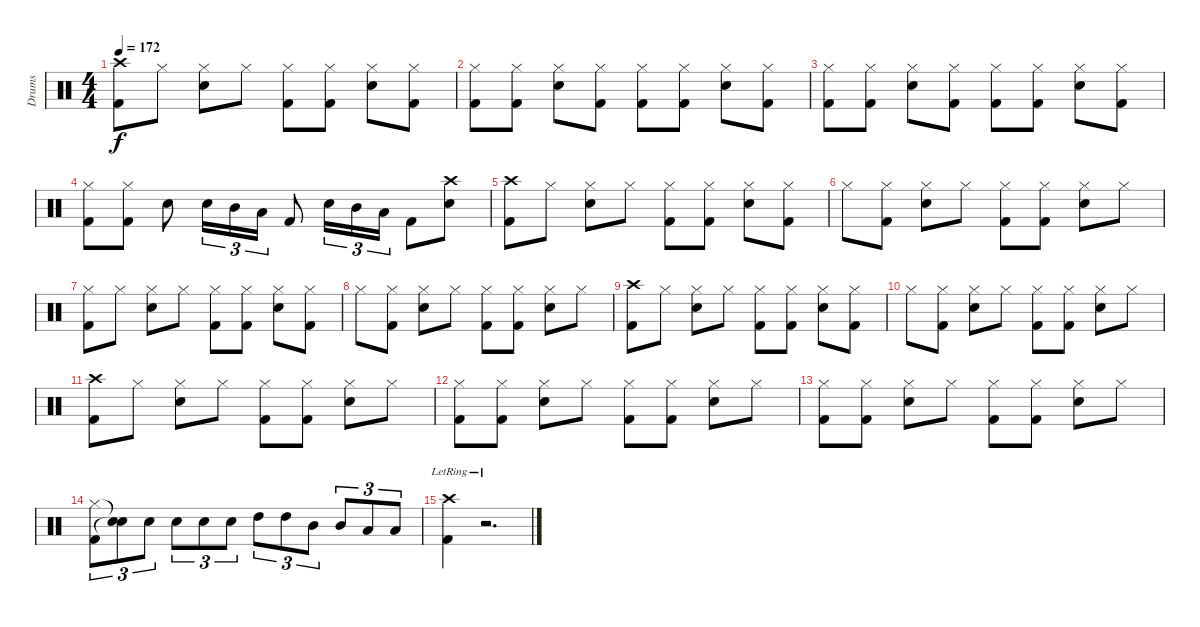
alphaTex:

\track ("Drums" "Drums") {instrument percussion}
\staff {score}
\articulation defaults
\ts (4 4)
\tempo 172
\clef neutral
\ks c
("Crash high (hit)" "Kick (hit) 2").8{dy f} "Hi-Hat (closed)".8 ("Hi-Hat (closed)" "Electric Snare (hit)").8 "Hi-Hat (closed)".8 ("Hi-Hat (closed)" "Kick (hit) 2").8 ("Hi-Hat (closed)" "Kick (hit) 2").8 ("Hi-Hat (closed)" "Electric Snare (hit)").8 ("Hi-Hat (closed)" "Kick (hit) 2").8 |
("Hi-Hat (closed)" "Kick (hit) 2").8 ("Hi-Hat (closed)" "Kick (hit) 2").8 ("Hi-Hat (closed)" "Electric Snare (hit)").8 ("Hi-Hat (closed)" "Kick (hit) 2").8 ("Hi-Hat (closed)" "Kick (hit) 2").8 ("Hi-Hat (closed)" "Kick (hit) 2").8 ("Hi-Hat (closed)" "Electric Snare (hit)").8 ("Hi-Hat (closed)" "Kick (hit) 2").8 |
("Hi-Hat (closed)" "Kick (hit) 2").8 ("Hi-Hat (closed)" "Kick (hit) 2").8 ("Hi-Hat (closed)" "Electric Snare (hit)").8 ("Hi-Hat (closed)" "Kick (hit) 2").8 ("Hi-Hat (closed)" "Kick (hit) 2").8 ("Hi-Hat (closed)" "Kick (hit) 2").8 ("Hi-Hat (closed)" "Electric Snare (hit)").8 ("Hi-Hat (closed)" "Kick (hit) 2").8 |
("Hi-Hat (closed)" "Kick (hit) 2").8 ("Hi-Hat (closed)" "Kick (hit) 2").8 "Electric Snare (hit)".8 "Electric Snare (hit)".16{tu (3 2)} "Mid Tom (hit)".16{tu (3 2)} "Low Tom (hit)".16{tu (3 2)} "Kick (hit) 2".8 "Electric Snare (hit)".16{tu (3 2)} "Mid Tom (hit)".16{tu (3 2)} "Low Tom (hit)".16{tu (3 2)} "Kick (hit) 2".8 ("Crash high (hit)" "Electric Snare (hit)").8 |
("Crash high (hit)" "Kick (hit) 2").8 "Hi-Hat (closed)".8 ("Hi-Hat (closed)" "Electric Snare (hit)").8 "Hi-Hat (closed)".8 ("Hi-Hat (closed)" "Kick (hit) 2").8 ("Hi-Hat (closed)" "Kick (hit) 2").8 ("Hi-Hat (closed)" "Electric Snare (hit)").8 ("Hi-Hat (closed)" "Kick (hit) 2").8 |
"Hi-Hat (closed)".8 ("Hi-Hat (closed)" "Kick (hit) 2").8 ("Hi-Hat (closed)" "Electric Snare (hit)").8 "Hi-Hat (closed)".8 ("Hi-Hat (closed)" "Kick (hit) 2").8 ("Hi-Hat (closed)" "Kick (hit) 2").8 ("Hi-Hat (closed)" "Electric Snare (hit)").8 "Hi-Hat (closed)".8 |
("Hi-Hat (closed)" "Kick (hit) 2").8 "Hi-Hat (closed)".8 ("Hi-Hat (closed)" "Electric Snare (hit)").8 "Hi-Hat (closed)".8 ("Hi-Hat (closed)" "Kick (hit) 2").8 ("Hi-Hat (closed)" "Kick (hit) 2").8 ("Hi-Hat (closed)" "Electric Snare (hit)").8 ("Hi-Hat (closed)" "Kick (hit) 2").8 |
"Hi-Hat (closed)".8 ("Hi-Hat (closed)" "Kick (hit) 2").8 ("Hi-Hat (closed)" "Electric Snare (hit)").8 "Hi-Hat (closed)".8 ("Hi-Hat (closed)" "Kick (hit) 2").8 ("Hi-Hat (closed)" "Kick (hit) 2").8 ("Hi-Hat (closed)" "Electric Snare (hit)").8 "Hi-Hat (closed)".8 |
("Crash high (hit)" "Kick (hit) 2").8 "Hi-Hat (closed)".8 ("Hi-Hat (closed)" "Electric Snare (hit)").8 "Hi-Hat (closed)".8 ("Hi-Hat (closed)" "Kick (hit) 2").8 ("Hi-Hat (closed)" "Kick (hit) 2").8 ("Hi-Hat (closed)" "Electric Snare (hit)").8 ("Hi-Hat (closed)" "Kick (hit) 2").8 |
"Hi-Hat (closed)".8 ("Hi-Hat (closed)" "Kick (hit) 2").8 ("Hi-Hat (closed)" "Electric Snare (hit)").8 "Hi-Hat (closed)".8 ("Hi-Hat (closed)" "Kick (hit) 2").8 ("Hi-Hat (closed)" "Kick (hit) 2").8 ("Hi-Hat (closed)" "Electric Snare (hit)").8 "Hi-Hat (closed)".8 |
("Crash high (hit)" "Kick (hit) 2").8 "Hi-Hat (closed)".8 ("Hi-Hat (closed)" "Electric Snare (hit)").8 "Hi-Hat (closed)".8 ("Hi-Hat (closed)" "Kick (hit) 2").8 ("Hi-Hat (closed)" "Kick (hit) 2").8 ("Hi-Hat (closed)" "Electric Snare (hit)").8 "Hi-Hat (closed)".8 |
("Hi-Hat (closed)" "Kick (hit) 2").8 ("Hi-Hat (closed)" "Kick (hit) 2").8 ("Hi-Hat (closed)" "Electric Snare (hit)").8 "Hi-Hat (closed)".8 ("Hi-Hat (closed)" "Kick (hit) 2").8 ("Hi-Hat (closed)" "Kick (hit) 2").8 ("Hi-Hat (closed)" "Electric Snare (hit)").8 "Hi-Hat (closed)".8 |
("Hi-Hat (closed)" "Kick (hit) 2").8 ("Hi-Hat (closed)" "Kick (hit) 2").8 ("Hi-Hat (closed)" "Electric Snare (hit)").8 "Hi-Hat (closed)".8 ("Hi-Hat (closed)" "Kick (hit) 2").8 ("Hi-Hat (closed)" "Kick (hit) 2").8 ("Hi-Hat (closed)" "Electric Snare (hit)").8 "Hi-Hat (closed)".8 |
("Hi-Hat (closed)" "Kick (hit) 2").8{tu (3 2)} ("Snare (hit)"{t} "Snare (hit)"{t}).8{tu (3 2)} "Electric Snare (hit)".8{tu (3 2)} "Electric Snare (hit)".8{tu (3 2)} "Electric Snare (hit)".8{tu (3 2)} "Electric Snare (hit)".8{tu (3 2)} "High Tom (hit)".8{tu (3 2)} "High Tom (hit)".8{tu (3 2)} "Mid Tom (hit)".8{tu (3 2)} "Mid Tom (hit)".8{tu (3 2)} "Low Tom (hit)".8{tu (3 2)} "Low Tom (hit)".8{tu (3 2)} |
("Crash high (hit)"{lr} "Kick (hit) 2").4 r.2{d}
